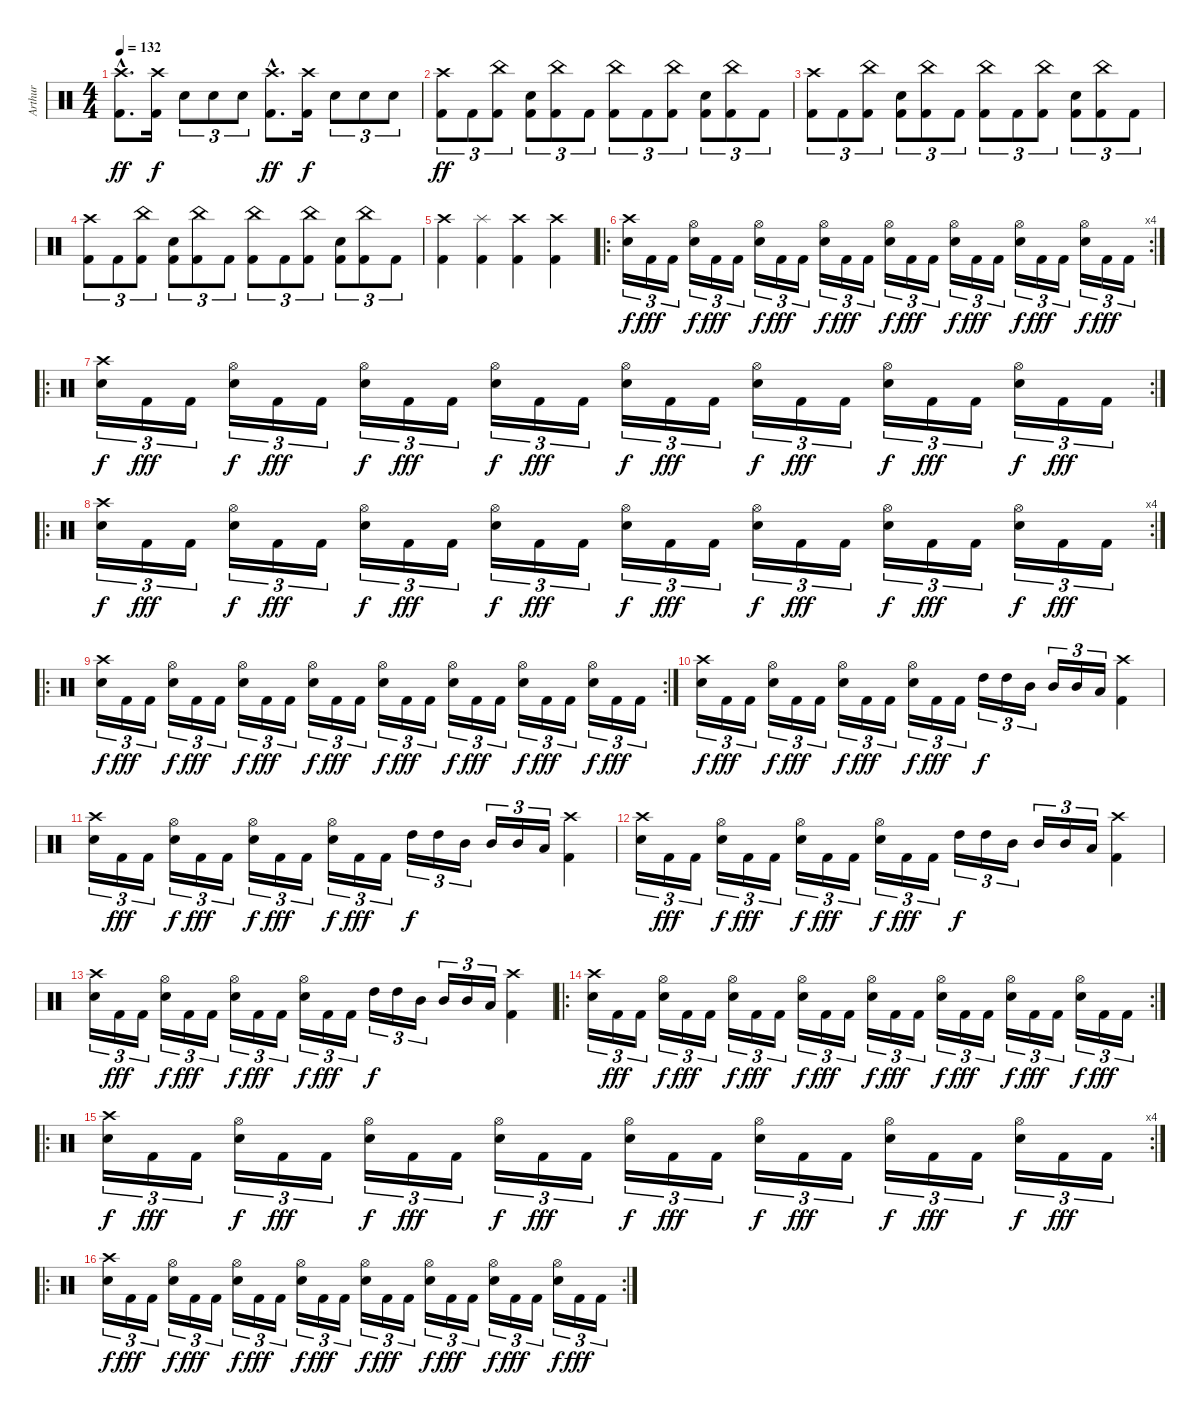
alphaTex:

\track ("Arthur" "Arthur") {instrument percussion}
\staff {score}
\articulation defaults
\ts (4 4)
\tempo 132
\clef neutral
\ks c
("Crash high (hit)"{hac} "Kick (hit) 2"{hac}).8{d dy ff} ("Crash high (hit)" "Kick (hit) 2").16{dy f} "Electric Snare (hit)".8{tu (3 2)} "Electric Snare (hit)".8{tu (3 2)} "Electric Snare (hit)".8{tu (3 2)} ("Crash high (hit)"{hac} "Kick (hit) 2"{hac}).8{d dy ff} ("Crash high (hit)" "Kick (hit) 2").16{dy f} "Electric Snare (hit)".8{tu (3 2)} "Electric Snare (hit)".8{tu (3 2)} "Electric Snare (hit)".8{tu (3 2)} |
("Crash high (hit)" "Kick (hit) 2").8{tu (3 2) dy ff} "Kick (hit) 2".8{tu (3 2)} ("China (hit)" "Kick (hit) 2").8{tu (3 2)} ("Electric Snare (hit)" "Kick (hit) 2").8{tu (3 2)} ("China (hit)" "Kick (hit) 2").8{tu (3 2)} "Kick (hit) 2".8{tu (3 2)} ("China (hit)" "Kick (hit) 2").8{tu (3 2)} "Kick (hit) 2".8{tu (3 2)} ("China (hit)" "Kick (hit) 2").8{tu (3 2)} ("Electric Snare (hit)" "Kick (hit) 2").8{tu (3 2)} ("China (hit)" "Kick (hit) 2").8{tu (3 2)} "Kick (hit) 2".8{tu (3 2)} |
("Crash high (hit)" "Kick (hit) 2").8{tu (3 2)} "Kick (hit) 2".8{tu (3 2)} ("China (hit)" "Kick (hit) 2").8{tu (3 2)} ("Electric Snare (hit)" "Kick (hit) 2").8{tu (3 2)} ("China (hit)" "Kick (hit) 2").8{tu (3 2)} "Kick (hit) 2".8{tu (3 2)} ("China (hit)" "Kick (hit) 2").8{tu (3 2)} "Kick (hit) 2".8{tu (3 2)} ("China (hit)" "Kick (hit) 2").8{tu (3 2)} ("Electric Snare (hit)" "Kick (hit) 2").8{tu (3 2)} ("China (hit)" "Kick (hit) 2").8{tu (3 2)} "Kick (hit) 2".8{tu (3 2)} |
("Crash high (hit)" "Kick (hit) 2").8{tu (3 2)} "Kick (hit) 2".8{tu (3 2)} ("China (hit)" "Kick (hit) 2").8{tu (3 2)} ("Electric Snare (hit)" "Kick (hit) 2").8{tu (3 2)} ("China (hit)" "Kick (hit) 2").8{tu (3 2)} "Kick (hit) 2".8{tu (3 2)} ("China (hit)" "Kick (hit) 2").8{tu (3 2)} "Kick (hit) 2".8{tu (3 2)} ("China (hit)" "Kick (hit) 2").8{tu (3 2)} ("Electric Snare (hit)" "Kick (hit) 2").8{tu (3 2)} ("China (hit)" "Kick (hit) 2").8{tu (3 2)} "Kick (hit) 2".8{tu (3 2)} |
("Crash high (hit)" "Kick (hit) 2").4 ("Splash (hit)" "Kick (hit) 2").4 ("Crash high (hit)" "Kick (hit) 2").4 ("Crash high (hit)" "Kick (hit) 2").4 |
\ro
\rc 4
("Crash high (hit)" "Electric Snare (hit)").16{tu (3 2) dy f} "Kick (hit) 2".16{tu (3 2) dy fff} "Kick (hit) 2".16{tu (3 2)} ("Hi-Hat (open)" "Electric Snare (hit)").16{tu (3 2) dy f} "Kick (hit) 2".16{tu (3 2) dy fff} "Kick (hit) 2".16{tu (3 2)} ("Hi-Hat (open)" "Electric Snare (hit)").16{tu (3 2) dy f} "Kick (hit) 2".16{tu (3 2) dy fff} "Kick (hit) 2".16{tu (3 2)} ("Hi-Hat (open)" "Electric Snare (hit)").16{tu (3 2) dy f} "Kick (hit) 2".16{tu (3 2) dy fff} "Kick (hit) 2".16{tu (3 2)} ("Hi-Hat (open)" "Electric Snare (hit)").16{tu (3 2) dy f} "Kick (hit) 2".16{tu (3 2) dy fff} "Kick (hit) 2".16{tu (3 2)} ("Hi-Hat (open)" "Electric Snare (hit)").16{tu (3 2) dy f} "Kick (hit) 2".16{tu (3 2) dy fff} "Kick (hit) 2".16{tu (3 2)} ("Hi-Hat (open)" "Electric Snare (hit)").16{tu (3 2) dy f} "Kick (hit) 2".16{tu (3 2) dy fff} "Kick (hit) 2".16{tu (3 2)} ("Hi-Hat (open)" "Electric Snare (hit)").16{tu (3 2) dy f} "Kick (hit) 2".16{tu (3 2) dy fff} "Kick (hit) 2".16{tu (3 2)} |
\ro
\rc 2
("Crash high (hit)" "Electric Snare (hit)").16{tu (3 2) dy f} "Kick (hit) 2".16{tu (3 2) dy fff} "Kick (hit) 2".16{tu (3 2)} ("Hi-Hat (open)" "Electric Snare (hit)").16{tu (3 2) dy f} "Kick (hit) 2".16{tu (3 2) dy fff} "Kick (hit) 2".16{tu (3 2)} ("Hi-Hat (open)" "Electric Snare (hit)").16{tu (3 2) dy f} "Kick (hit) 2".16{tu (3 2) dy fff} "Kick (hit) 2".16{tu (3 2)} ("Hi-Hat (open)" "Electric Snare (hit)").16{tu (3 2) dy f} "Kick (hit) 2".16{tu (3 2) dy fff} "Kick (hit) 2".16{tu (3 2)} ("Hi-Hat (open)" "Electric Snare (hit)").16{tu (3 2) dy f} "Kick (hit) 2".16{tu (3 2) dy fff} "Kick (hit) 2".16{tu (3 2)} ("Hi-Hat (open)" "Electric Snare (hit)").16{tu (3 2) dy f} "Kick (hit) 2".16{tu (3 2) dy fff} "Kick (hit) 2".16{tu (3 2)} ("Hi-Hat (open)" "Electric Snare (hit)").16{tu (3 2) dy f} "Kick (hit) 2".16{tu (3 2) dy fff} "Kick (hit) 2".16{tu (3 2)} ("Hi-Hat (open)" "Electric Snare (hit)").16{tu (3 2) dy f} "Kick (hit) 2".16{tu (3 2) dy fff} "Kick (hit) 2".16{tu (3 2)} |
\ro
\rc 4
("Crash high (hit)" "Electric Snare (hit)").16{tu (3 2) dy f} "Kick (hit) 2".16{tu (3 2) dy fff} "Kick (hit) 2".16{tu (3 2)} ("Hi-Hat (open)" "Electric Snare (hit)").16{tu (3 2) dy f} "Kick (hit) 2".16{tu (3 2) dy fff} "Kick (hit) 2".16{tu (3 2)} ("Hi-Hat (open)" "Electric Snare (hit)").16{tu (3 2) dy f} "Kick (hit) 2".16{tu (3 2) dy fff} "Kick (hit) 2".16{tu (3 2)} ("Hi-Hat (open)" "Electric Snare (hit)").16{tu (3 2) dy f} "Kick (hit) 2".16{tu (3 2) dy fff} "Kick (hit) 2".16{tu (3 2)} ("Hi-Hat (open)" "Electric Snare (hit)").16{tu (3 2) dy f} "Kick (hit) 2".16{tu (3 2) dy fff} "Kick (hit) 2".16{tu (3 2)} ("Hi-Hat (open)" "Electric Snare (hit)").16{tu (3 2) dy f} "Kick (hit) 2".16{tu (3 2) dy fff} "Kick (hit) 2".16{tu (3 2)} ("Hi-Hat (open)" "Electric Snare (hit)").16{tu (3 2) dy f} "Kick (hit) 2".16{tu (3 2) dy fff} "Kick (hit) 2".16{tu (3 2)} ("Hi-Hat (open)" "Electric Snare (hit)").16{tu (3 2) dy f} "Kick (hit) 2".16{tu (3 2) dy fff} "Kick (hit) 2".16{tu (3 2)} |
\ro
\rc 2
("Crash high (hit)" "Electric Snare (hit)").16{tu (3 2) dy f} "Kick (hit) 2".16{tu (3 2) dy fff} "Kick (hit) 2".16{tu (3 2)} ("Hi-Hat (open)" "Electric Snare (hit)").16{tu (3 2) dy f} "Kick (hit) 2".16{tu (3 2) dy fff} "Kick (hit) 2".16{tu (3 2)} ("Hi-Hat (open)" "Electric Snare (hit)").16{tu (3 2) dy f} "Kick (hit) 2".16{tu (3 2) dy fff} "Kick (hit) 2".16{tu (3 2)} ("Hi-Hat (open)" "Electric Snare (hit)").16{tu (3 2) dy f} "Kick (hit) 2".16{tu (3 2) dy fff} "Kick (hit) 2".16{tu (3 2)} ("Hi-Hat (open)" "Electric Snare (hit)").16{tu (3 2) dy f} "Kick (hit) 2".16{tu (3 2) dy fff} "Kick (hit) 2".16{tu (3 2)} ("Hi-Hat (open)" "Electric Snare (hit)").16{tu (3 2) dy f} "Kick (hit) 2".16{tu (3 2) dy fff} "Kick (hit) 2".16{tu (3 2)} ("Hi-Hat (open)" "Electric Snare (hit)").16{tu (3 2) dy f} "Kick (hit) 2".16{tu (3 2) dy fff} "Kick (hit) 2".16{tu (3 2)} ("Hi-Hat (open)" "Electric Snare (hit)").16{tu (3 2) dy f} "Kick (hit) 2".16{tu (3 2) dy fff} "Kick (hit) 2".16{tu (3 2)} |
("Crash high (hit)" "Electric Snare (hit)").16{tu (3 2) dy f} "Kick (hit) 2".16{tu (3 2) dy fff} "Kick (hit) 2".16{tu (3 2)} ("Hi-Hat (open)" "Electric Snare (hit)").16{tu (3 2) dy f} "Kick (hit) 2".16{tu (3 2) dy fff} "Kick (hit) 2".16{tu (3 2)} ("Hi-Hat (open)" "Electric Snare (hit)").16{tu (3 2) dy f} "Kick (hit) 2".16{tu (3 2) dy fff} "Kick (hit) 2".16{tu (3 2)} ("Hi-Hat (open)" "Electric Snare (hit)").16{tu (3 2) dy f} "Kick (hit) 2".16{tu (3 2) dy fff} "Kick (hit) 2".16{tu (3 2)} "High Tom (hit)".16{tu (3 2) dy f} "High Tom (hit)".16{tu (3 2)} "Mid Tom (hit)".16{tu (3 2)} "Mid Tom (hit)".16{tu (3 2)} "Mid Tom (hit)".16{tu (3 2)} "Low Tom (hit)".16{tu (3 2)} ("Crash high (hit)" "Kick (hit) 2").4 |
("Crash high (hit)" "Electric Snare (hit)").16{tu (3 2)} "Kick (hit) 2".16{tu (3 2) dy fff} "Kick (hit) 2".16{tu (3 2)} ("Hi-Hat (open)" "Electric Snare (hit)").16{tu (3 2) dy f} "Kick (hit) 2".16{tu (3 2) dy fff} "Kick (hit) 2".16{tu (3 2)} ("Hi-Hat (open)" "Electric Snare (hit)").16{tu (3 2) dy f} "Kick (hit) 2".16{tu (3 2) dy fff} "Kick (hit) 2".16{tu (3 2)} ("Hi-Hat (open)" "Electric Snare (hit)").16{tu (3 2) dy f} "Kick (hit) 2".16{tu (3 2) dy fff} "Kick (hit) 2".16{tu (3 2)} "High Tom (hit)".16{tu (3 2) dy f} "High Tom (hit)".16{tu (3 2)} "Mid Tom (hit)".16{tu (3 2)} "Mid Tom (hit)".16{tu (3 2)} "Mid Tom (hit)".16{tu (3 2)} "Low Tom (hit)".16{tu (3 2)} ("Crash high (hit)" "Kick (hit) 2").4 |
("Crash high (hit)" "Electric Snare (hit)").16{tu (3 2)} "Kick (hit) 2".16{tu (3 2) dy fff} "Kick (hit) 2".16{tu (3 2)} ("Hi-Hat (open)" "Electric Snare (hit)").16{tu (3 2) dy f} "Kick (hit) 2".16{tu (3 2) dy fff} "Kick (hit) 2".16{tu (3 2)} ("Hi-Hat (open)" "Electric Snare (hit)").16{tu (3 2) dy f} "Kick (hit) 2".16{tu (3 2) dy fff} "Kick (hit) 2".16{tu (3 2)} ("Hi-Hat (open)" "Electric Snare (hit)").16{tu (3 2) dy f} "Kick (hit) 2".16{tu (3 2) dy fff} "Kick (hit) 2".16{tu (3 2)} "High Tom (hit)".16{tu (3 2) dy f} "High Tom (hit)".16{tu (3 2)} "Mid Tom (hit)".16{tu (3 2)} "Mid Tom (hit)".16{tu (3 2)} "Mid Tom (hit)".16{tu (3 2)} "Low Tom (hit)".16{tu (3 2)} ("Crash high (hit)" "Kick (hit) 2").4 |
("Crash high (hit)" "Electric Snare (hit)").16{tu (3 2)} "Kick (hit) 2".16{tu (3 2) dy fff} "Kick (hit) 2".16{tu (3 2)} ("Hi-Hat (open)" "Electric Snare (hit)").16{tu (3 2) dy f} "Kick (hit) 2".16{tu (3 2) dy fff} "Kick (hit) 2".16{tu (3 2)} ("Hi-Hat (open)" "Electric Snare (hit)").16{tu (3 2) dy f} "Kick (hit) 2".16{tu (3 2) dy fff} "Kick (hit) 2".16{tu (3 2)} ("Hi-Hat (open)" "Electric Snare (hit)").16{tu (3 2) dy f} "Kick (hit) 2".16{tu (3 2) dy fff} "Kick (hit) 2".16{tu (3 2)} "High Tom (hit)".16{tu (3 2) dy f} "High Tom (hit)".16{tu (3 2)} "Mid Tom (hit)".16{tu (3 2)} "Mid Tom (hit)".16{tu (3 2)} "Mid Tom (hit)".16{tu (3 2)} "Low Tom (hit)".16{tu (3 2)} ("Crash high (hit)" "Kick (hit) 2").4 |
\ro
\rc 2
("Crash high (hit)" "Electric Snare (hit)").16{tu (3 2)} "Kick (hit) 2".16{tu (3 2) dy fff} "Kick (hit) 2".16{tu (3 2)} ("Hi-Hat (open)" "Electric Snare (hit)").16{tu (3 2) dy f} "Kick (hit) 2".16{tu (3 2) dy fff} "Kick (hit) 2".16{tu (3 2)} ("Hi-Hat (open)" "Electric Snare (hit)").16{tu (3 2) dy f} "Kick (hit) 2".16{tu (3 2) dy fff} "Kick (hit) 2".16{tu (3 2)} ("Hi-Hat (open)" "Electric Snare (hit)").16{tu (3 2) dy f} "Kick (hit) 2".16{tu (3 2) dy fff} "Kick (hit) 2".16{tu (3 2)} ("Hi-Hat (open)" "Electric Snare (hit)").16{tu (3 2) dy f} "Kick (hit) 2".16{tu (3 2) dy fff} "Kick (hit) 2".16{tu (3 2)} ("Hi-Hat (open)" "Electric Snare (hit)").16{tu (3 2) dy f} "Kick (hit) 2".16{tu (3 2) dy fff} "Kick (hit) 2".16{tu (3 2)} ("Hi-Hat (open)" "Electric Snare (hit)").16{tu (3 2) dy f} "Kick (hit) 2".16{tu (3 2) dy fff} "Kick (hit) 2".16{tu (3 2)} ("Hi-Hat (open)" "Electric Snare (hit)").16{tu (3 2) dy f} "Kick (hit) 2".16{tu (3 2) dy fff} "Kick (hit) 2".16{tu (3 2)} |
\ro
\rc 4
("Crash high (hit)" "Electric Snare (hit)").16{tu (3 2) dy f} "Kick (hit) 2".16{tu (3 2) dy fff} "Kick (hit) 2".16{tu (3 2)} ("Hi-Hat (open)" "Electric Snare (hit)").16{tu (3 2) dy f} "Kick (hit) 2".16{tu (3 2) dy fff} "Kick (hit) 2".16{tu (3 2)} ("Hi-Hat (open)" "Electric Snare (hit)").16{tu (3 2) dy f} "Kick (hit) 2".16{tu (3 2) dy fff} "Kick (hit) 2".16{tu (3 2)} ("Hi-Hat (open)" "Electric Snare (hit)").16{tu (3 2) dy f} "Kick (hit) 2".16{tu (3 2) dy fff} "Kick (hit) 2".16{tu (3 2)} ("Hi-Hat (open)" "Electric Snare (hit)").16{tu (3 2) dy f} "Kick (hit) 2".16{tu (3 2) dy fff} "Kick (hit) 2".16{tu (3 2)} ("Hi-Hat (open)" "Electric Snare (hit)").16{tu (3 2) dy f} "Kick (hit) 2".16{tu (3 2) dy fff} "Kick (hit) 2".16{tu (3 2)} ("Hi-Hat (open)" "Electric Snare (hit)").16{tu (3 2) dy f} "Kick (hit) 2".16{tu (3 2) dy fff} "Kick (hit) 2".16{tu (3 2)} ("Hi-Hat (open)" "Electric Snare (hit)").16{tu (3 2) dy f} "Kick (hit) 2".16{tu (3 2) dy fff} "Kick (hit) 2".16{tu (3 2)} |
\ro
\rc 2
("Crash high (hit)" "Electric Snare (hit)").16{tu (3 2) dy f} "Kick (hit) 2".16{tu (3 2) dy fff} "Kick (hit) 2".16{tu (3 2)} ("Hi-Hat (open)" "Electric Snare (hit)").16{tu (3 2) dy f} "Kick (hit) 2".16{tu (3 2) dy fff} "Kick (hit) 2".16{tu (3 2)} ("Hi-Hat (open)" "Electric Snare (hit)").16{tu (3 2) dy f} "Kick (hit) 2".16{tu (3 2) dy fff} "Kick (hit) 2".16{tu (3 2)} ("Hi-Hat (open)" "Electric Snare (hit)").16{tu (3 2) dy f} "Kick (hit) 2".16{tu (3 2) dy fff} "Kick (hit) 2".16{tu (3 2)} ("Hi-Hat (open)" "Electric Snare (hit)").16{tu (3 2) dy f} "Kick (hit) 2".16{tu (3 2) dy fff} "Kick (hit) 2".16{tu (3 2)} ("Hi-Hat (open)" "Electric Snare (hit)").16{tu (3 2) dy f} "Kick (hit) 2".16{tu (3 2) dy fff} "Kick (hit) 2".16{tu (3 2)} ("Hi-Hat (open)" "Electric Snare (hit)").16{tu (3 2) dy f} "Kick (hit) 2".16{tu (3 2) dy fff} "Kick (hit) 2".16{tu (3 2)} ("Hi-Hat (open)" "Electric Snare (hit)").16{tu (3 2) dy f} "Kick (hit) 2".16{tu (3 2) dy fff} "Kick (hit) 2".16{tu (3 2)}
